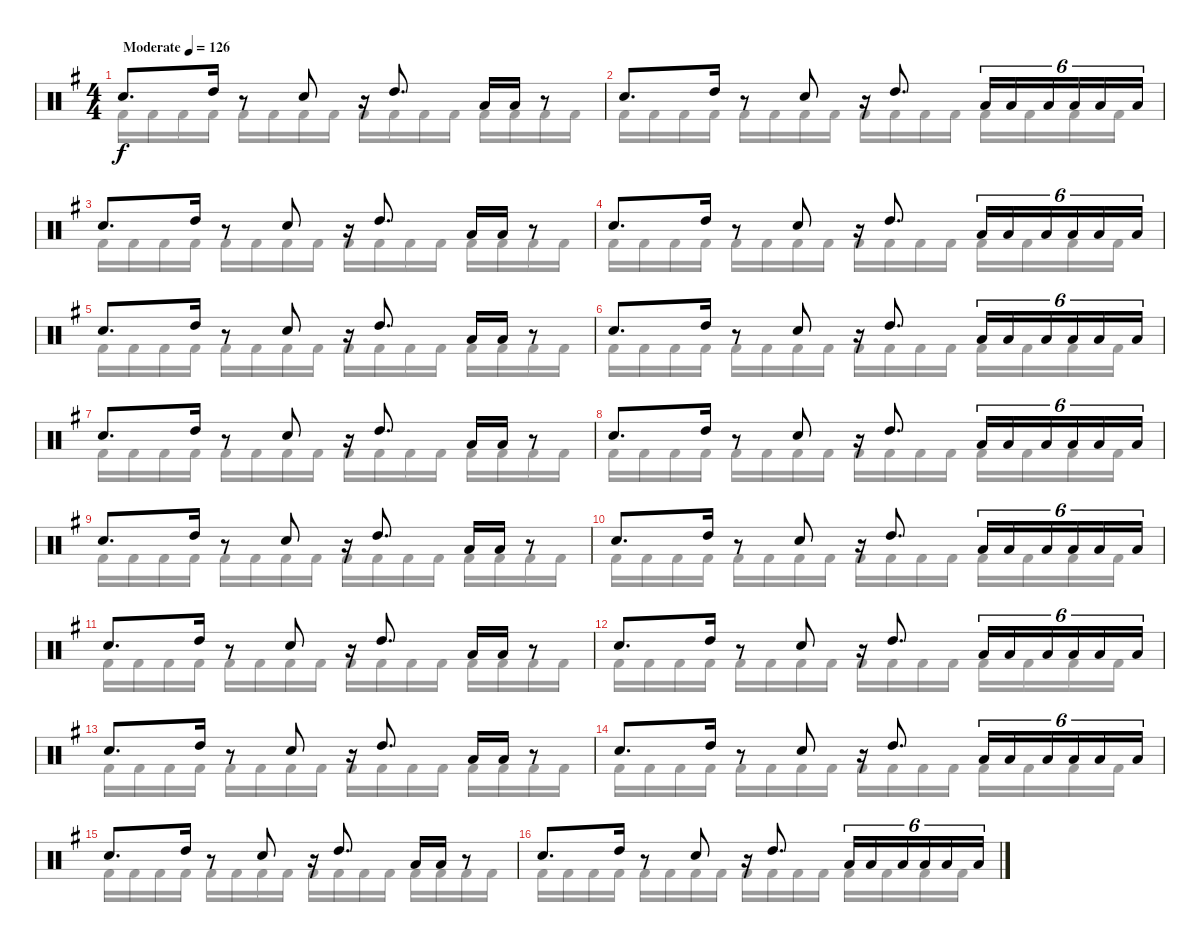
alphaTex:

\track "" {instrument percussion}
\staff {score}
\articulation defaults
\voice
\ts (4 4)
\tempo (126 "Moderate")
\clef neutral
\ks g "Electric Snare (hit)".8{d dy f} "High Tom (hit)".16
r.8 "Electric Snare (hit)".8 r.16 "High Tom (hit)".8{d} "Low Tom (hit)".16 "Low Tom (hit)".16 r.8 |
"Electric Snare (hit)".8{d} "High Tom (hit)".16 r.8 "Electric Snare (hit)".8 r.16 "High Tom (hit)".8{d} "Low Tom (hit)".16{tu (6 4)} "Low Tom (hit)".16{tu (6 4)} "Low Tom (hit)".16{tu (6 4)} "Low Tom (hit)".16{tu (6 4)} "Low Tom (hit)".16{tu (6 4)} "Low Tom (hit)".16{tu (6 4)} |
"Electric Snare (hit)".8{d} "High Tom (hit)".16 r.8 "Electric Snare (hit)".8 r.16 "High Tom (hit)".8{d} "Low Tom (hit)".16 "Low Tom (hit)".16 r.8 |
"Electric Snare (hit)".8{d} "High Tom (hit)".16 r.8 "Electric Snare (hit)".8 r.16 "High Tom (hit)".8{d} "Low Tom (hit)".16{tu (6 4)} "Low Tom (hit)".16{tu (6 4)} "Low Tom (hit)".16{tu (6 4)} "Low Tom (hit)".16{tu (6 4)} "Low Tom (hit)".16{tu (6 4)} "Low Tom (hit)".16{tu (6 4)} |
"Electric Snare (hit)".8{d} "High Tom (hit)".16 r.8 "Electric Snare (hit)".8 r.16 "High Tom (hit)".8{d} "Low Tom (hit)".16 "Low Tom (hit)".16 r.8 |
"Electric Snare (hit)".8{d} "High Tom (hit)".16 r.8 "Electric Snare (hit)".8 r.16 "High Tom (hit)".8{d} "Low Tom (hit)".16{tu (6 4)} "Low Tom (hit)".16{tu (6 4)} "Low Tom (hit)".16{tu (6 4)} "Low Tom (hit)".16{tu (6 4)} "Low Tom (hit)".16{tu (6 4)} "Low Tom (hit)".16{tu (6 4)} |
"Electric Snare (hit)".8{d} "High Tom (hit)".16 r.8 "Electric Snare (hit)".8 r.16 "High Tom (hit)".8{d} "Low Tom (hit)".16 "Low Tom (hit)".16 r.8 |
"Electric Snare (hit)".8{d} "High Tom (hit)".16 r.8 "Electric Snare (hit)".8 r.16 "High Tom (hit)".8{d} "Low Tom (hit)".16{tu (6 4)} "Low Tom (hit)".16{tu (6 4)} "Low Tom (hit)".16{tu (6 4)} "Low Tom (hit)".16{tu (6 4)} "Low Tom (hit)".16{tu (6 4)} "Low Tom (hit)".16{tu (6 4)} |
"Electric Snare (hit)".8{d} "High Tom (hit)".16 r.8 "Electric Snare (hit)".8 r.16 "High Tom (hit)".8{d} "Low Tom (hit)".16 "Low Tom (hit)".16 r.8 |
"Electric Snare (hit)".8{d} "High Tom (hit)".16 r.8 "Electric Snare (hit)".8 r.16 "High Tom (hit)".8{d} "Low Tom (hit)".16{tu (6 4)} "Low Tom (hit)".16{tu (6 4)} "Low Tom (hit)".16{tu (6 4)} "Low Tom (hit)".16{tu (6 4)} "Low Tom (hit)".16{tu (6 4)} "Low Tom (hit)".16{tu (6 4)} |
"Electric Snare (hit)".8{d} "High Tom (hit)".16 r.8 "Electric Snare (hit)".8 r.16 "High Tom (hit)".8{d} "Low Tom (hit)".16 "Low Tom (hit)".16 r.8 |
"Electric Snare (hit)".8{d} "High Tom (hit)".16 r.8 "Electric Snare (hit)".8 r.16 "High Tom (hit)".8{d} "Low Tom (hit)".16{tu (6 4)} "Low Tom (hit)".16{tu (6 4)} "Low Tom (hit)".16{tu (6 4)} "Low Tom (hit)".16{tu (6 4)} "Low Tom (hit)".16{tu (6 4)} "Low Tom (hit)".16{tu (6 4)} |
"Electric Snare (hit)".8{d} "High Tom (hit)".16 r.8 "Electric Snare (hit)".8 r.16 "High Tom (hit)".8{d} "Low Tom (hit)".16 "Low Tom (hit)".16 r.8 |
"Electric Snare (hit)".8{d} "High Tom (hit)".16 r.8 "Electric Snare (hit)".8 r.16 "High Tom (hit)".8{d} "Low Tom (hit)".16{tu (6 4)} "Low Tom (hit)".16{tu (6 4)} "Low Tom (hit)".16{tu (6 4)} "Low Tom (hit)".16{tu (6 4)} "Low Tom (hit)".16{tu (6 4)} "Low Tom (hit)".16{tu (6 4)} |
"Electric Snare (hit)".8{d} "High Tom (hit)".16 r.8 "Electric Snare (hit)".8 r.16 "High Tom (hit)".8{d} "Low Tom (hit)".16 "Low Tom (hit)".16 r.8 |
"Electric Snare (hit)".8{d} "High Tom (hit)".16 r.8 "Electric Snare (hit)".8 r.16 "High Tom (hit)".8{d} "Low Tom (hit)".16{tu (6 4)} "Low Tom (hit)".16{tu (6 4)} "Low Tom (hit)".16{tu (6 4)} "Low Tom (hit)".16{tu (6 4)} "Low Tom (hit)".16{tu (6 4)} "Low Tom (hit)".16{tu (6 4)}
\voice
\clef neutral
\ottava regular
\simile none
\ks g "Kick (hit) 2".16{dy f} "Kick (hit) 2".16 "Kick (hit) 2".16 "Kick (hit) 2".16 "Kick (hit) 2".16 "Kick (hit) 2".16 "Kick (hit) 2".16 "Kick (hit) 2".16 "Kick (hit) 2".16 "Kick (hit) 2".16 "Kick (hit) 2".16 "Kick (hit) 2".16 "Kick (hit) 2".16 "Kick (hit) 2".16 "Kick (hit) 2".16 "Kick (hit) 2".16
|
"Kick (hit) 2".16 "Kick (hit) 2".16 "Kick (hit) 2".16 "Kick (hit) 2".16 "Kick (hit) 2".16 "Kick (hit) 2".16 "Kick (hit) 2".16 "Kick (hit) 2".16 "Kick (hit) 2".16 "Kick (hit) 2".16 "Kick (hit) 2".16 "Kick (hit) 2".16 "Kick (hit) 2".16 "Kick (hit) 2".16 "Kick (hit) 2".16 "Kick (hit) 2".16 |
"Kick (hit) 2".16 "Kick (hit) 2".16 "Kick (hit) 2".16 "Kick (hit) 2".16 "Kick (hit) 2".16 "Kick (hit) 2".16 "Kick (hit) 2".16 "Kick (hit) 2".16 "Kick (hit) 2".16 "Kick (hit) 2".16 "Kick (hit) 2".16 "Kick (hit) 2".16 "Kick (hit) 2".16 "Kick (hit) 2".16 "Kick (hit) 2".16 "Kick (hit) 2".16 |
"Kick (hit) 2".16 "Kick (hit) 2".16 "Kick (hit) 2".16 "Kick (hit) 2".16 "Kick (hit) 2".16 "Kick (hit) 2".16 "Kick (hit) 2".16 "Kick (hit) 2".16 "Kick (hit) 2".16 "Kick (hit) 2".16 "Kick (hit) 2".16 "Kick (hit) 2".16 "Kick (hit) 2".16 "Kick (hit) 2".16 "Kick (hit) 2".16 "Kick (hit) 2".16 |
"Kick (hit) 2".16 "Kick (hit) 2".16 "Kick (hit) 2".16 "Kick (hit) 2".16 "Kick (hit) 2".16 "Kick (hit) 2".16 "Kick (hit) 2".16 "Kick (hit) 2".16 "Kick (hit) 2".16 "Kick (hit) 2".16 "Kick (hit) 2".16 "Kick (hit) 2".16 "Kick (hit) 2".16 "Kick (hit) 2".16 "Kick (hit) 2".16 "Kick (hit) 2".16 |
"Kick (hit) 2".16 "Kick (hit) 2".16 "Kick (hit) 2".16 "Kick (hit) 2".16 "Kick (hit) 2".16 "Kick (hit) 2".16 "Kick (hit) 2".16 "Kick (hit) 2".16 "Kick (hit) 2".16 "Kick (hit) 2".16 "Kick (hit) 2".16 "Kick (hit) 2".16 "Kick (hit) 2".16 "Kick (hit) 2".16 "Kick (hit) 2".16 "Kick (hit) 2".16 |
"Kick (hit) 2".16 "Kick (hit) 2".16 "Kick (hit) 2".16 "Kick (hit) 2".16 "Kick (hit) 2".16 "Kick (hit) 2".16 "Kick (hit) 2".16 "Kick (hit) 2".16 "Kick (hit) 2".16 "Kick (hit) 2".16 "Kick (hit) 2".16 "Kick (hit) 2".16 "Kick (hit) 2".16 "Kick (hit) 2".16 "Kick (hit) 2".16 "Kick (hit) 2".16 |
"Kick (hit) 2".16 "Kick (hit) 2".16 "Kick (hit) 2".16 "Kick (hit) 2".16 "Kick (hit) 2".16 "Kick (hit) 2".16 "Kick (hit) 2".16 "Kick (hit) 2".16 "Kick (hit) 2".16 "Kick (hit) 2".16 "Kick (hit) 2".16 "Kick (hit) 2".16 "Kick (hit) 2".16 "Kick (hit) 2".16 "Kick (hit) 2".16 "Kick (hit) 2".16 |
"Kick (hit) 2".16 "Kick (hit) 2".16 "Kick (hit) 2".16 "Kick (hit) 2".16 "Kick (hit) 2".16 "Kick (hit) 2".16 "Kick (hit) 2".16 "Kick (hit) 2".16 "Kick (hit) 2".16 "Kick (hit) 2".16 "Kick (hit) 2".16 "Kick (hit) 2".16 "Kick (hit) 2".16 "Kick (hit) 2".16 "Kick (hit) 2".16 "Kick (hit) 2".16 |
"Kick (hit) 2".16 "Kick (hit) 2".16 "Kick (hit) 2".16 "Kick (hit) 2".16 "Kick (hit) 2".16 "Kick (hit) 2".16 "Kick (hit) 2".16 "Kick (hit) 2".16 "Kick (hit) 2".16 "Kick (hit) 2".16 "Kick (hit) 2".16 "Kick (hit) 2".16 "Kick (hit) 2".16 "Kick (hit) 2".16 "Kick (hit) 2".16 "Kick (hit) 2".16 |
"Kick (hit) 2".16 "Kick (hit) 2".16 "Kick (hit) 2".16 "Kick (hit) 2".16 "Kick (hit) 2".16 "Kick (hit) 2".16 "Kick (hit) 2".16 "Kick (hit) 2".16 "Kick (hit) 2".16 "Kick (hit) 2".16 "Kick (hit) 2".16 "Kick (hit) 2".16 "Kick (hit) 2".16 "Kick (hit) 2".16 "Kick (hit) 2".16 "Kick (hit) 2".16 |
"Kick (hit) 2".16 "Kick (hit) 2".16 "Kick (hit) 2".16 "Kick (hit) 2".16 "Kick (hit) 2".16 "Kick (hit) 2".16 "Kick (hit) 2".16 "Kick (hit) 2".16 "Kick (hit) 2".16 "Kick (hit) 2".16 "Kick (hit) 2".16 "Kick (hit) 2".16 "Kick (hit) 2".16 "Kick (hit) 2".16 "Kick (hit) 2".16 "Kick (hit) 2".16 |
"Kick (hit) 2".16 "Kick (hit) 2".16 "Kick (hit) 2".16 "Kick (hit) 2".16 "Kick (hit) 2".16 "Kick (hit) 2".16 "Kick (hit) 2".16 "Kick (hit) 2".16 "Kick (hit) 2".16 "Kick (hit) 2".16 "Kick (hit) 2".16 "Kick (hit) 2".16 "Kick (hit) 2".16 "Kick (hit) 2".16 "Kick (hit) 2".16 "Kick (hit) 2".16 |
"Kick (hit) 2".16 "Kick (hit) 2".16 "Kick (hit) 2".16 "Kick (hit) 2".16 "Kick (hit) 2".16 "Kick (hit) 2".16 "Kick (hit) 2".16 "Kick (hit) 2".16 "Kick (hit) 2".16 "Kick (hit) 2".16 "Kick (hit) 2".16 "Kick (hit) 2".16 "Kick (hit) 2".16 "Kick (hit) 2".16 "Kick (hit) 2".16 "Kick (hit) 2".16 |
"Kick (hit) 2".16 "Kick (hit) 2".16 "Kick (hit) 2".16 "Kick (hit) 2".16 "Kick (hit) 2".16 "Kick (hit) 2".16 "Kick (hit) 2".16 "Kick (hit) 2".16 "Kick (hit) 2".16 "Kick (hit) 2".16 "Kick (hit) 2".16 "Kick (hit) 2".16 "Kick (hit) 2".16 "Kick (hit) 2".16 "Kick (hit) 2".16 "Kick (hit) 2".16 |
"Kick (hit) 2".16 "Kick (hit) 2".16 "Kick (hit) 2".16 "Kick (hit) 2".16 "Kick (hit) 2".16 "Kick (hit) 2".16 "Kick (hit) 2".16 "Kick (hit) 2".16 "Kick (hit) 2".16 "Kick (hit) 2".16 "Kick (hit) 2".16 "Kick (hit) 2".16 "Kick (hit) 2".16 "Kick (hit) 2".16 "Kick (hit) 2".16 "Kick (hit) 2".16
